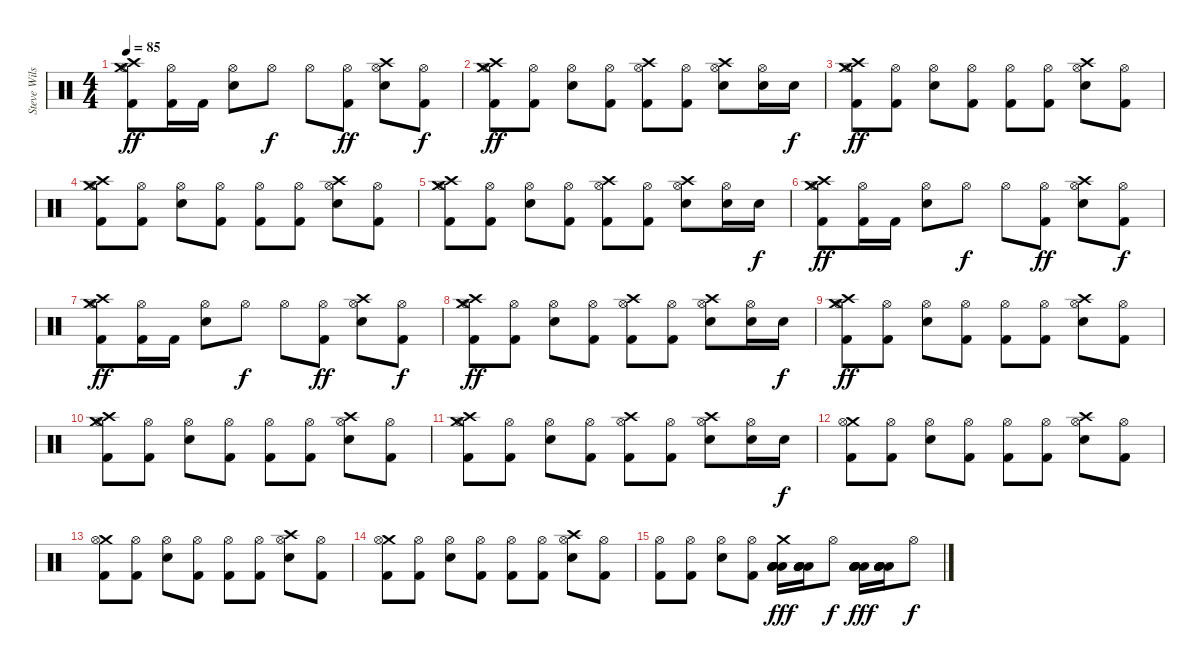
\track ("Steve Wilson" "Steve Wils") {instrument percussion}
\staff {score}
\articulation defaults
\ts (4 4)
\tempo 85
\clef neutral
\ks c
("Crash high (hit)" "Crash medium (hit)" "Hi-Hat (open)" "Kick (hit) 2").8{dy ff} ("Hi-Hat (open)" "Kick (hit) 2").16 "Kick (hit) 2".16 ("Hi-Hat (open)" "Snare (hit) 2").8 "Hi-Hat (open)".8{dy f} "Hi-Hat (open)".8 ("Hi-Hat (open)" "Kick (hit) 2").8{dy ff} ("Crash high (hit)" "Hi-Hat (open)" "Snare (hit) 2").8 ("Hi-Hat (open)" "Kick (hit) 2").8{dy f} |
("Crash high (hit)" "Crash medium (hit)" "Hi-Hat (open)" "Kick (hit) 2").8{dy ff} ("Hi-Hat (open)" "Kick (hit) 2").8 ("Hi-Hat (open)" "Snare (hit) 2").8 ("Hi-Hat (open)" "Kick (hit) 2").8 ("Crash high (hit)" "Hi-Hat (open)" "Kick (hit) 2").8 ("Hi-Hat (open)" "Kick (hit) 2").8 ("Crash high (hit)" "Hi-Hat (open)" "Snare (hit) 2").8 ("Hi-Hat (open)" "Snare (hit) 2").16 "Snare (hit) 2".16{dy f} |
("Crash high (hit)" "Crash medium (hit)" "Hi-Hat (open)" "Kick (hit) 2").8{dy ff} ("Hi-Hat (open)" "Kick (hit) 2").8 ("Hi-Hat (open)" "Snare (hit) 2").8 ("Hi-Hat (open)" "Kick (hit) 2").8 ("Hi-Hat (open)" "Kick (hit) 2").8 ("Hi-Hat (open)" "Kick (hit) 2").8 ("Crash high (hit)" "Hi-Hat (open)" "Snare (hit) 2").8 ("Hi-Hat (open)" "Kick (hit) 2").8 |
("Crash high (hit)" "Crash medium (hit)" "Hi-Hat (open)" "Kick (hit) 2").8 ("Hi-Hat (open)" "Kick (hit) 2").8 ("Hi-Hat (open)" "Snare (hit) 2").8 ("Hi-Hat (open)" "Kick (hit) 2").8 ("Hi-Hat (open)" "Kick (hit) 2").8 ("Hi-Hat (open)" "Kick (hit) 2").8 ("Crash high (hit)" "Hi-Hat (open)" "Snare (hit) 2").8 ("Hi-Hat (open)" "Kick (hit) 2").8 |
("Crash high (hit)" "Crash medium (hit)" "Hi-Hat (open)" "Kick (hit) 2").8 ("Hi-Hat (open)" "Kick (hit) 2").8 ("Hi-Hat (open)" "Snare (hit) 2").8 ("Hi-Hat (open)" "Kick (hit) 2").8 ("Crash high (hit)" "Hi-Hat (open)" "Kick (hit) 2").8 ("Hi-Hat (open)" "Kick (hit) 2").8 ("Crash high (hit)" "Hi-Hat (open)" "Snare (hit) 2").8 ("Hi-Hat (open)" "Snare (hit) 2").16 "Snare (hit) 2".16{dy f} |
("Crash high (hit)" "Crash medium (hit)" "Hi-Hat (open)" "Kick (hit) 2").8{dy ff} ("Hi-Hat (open)" "Kick (hit) 2").16 "Kick (hit) 2".16 ("Hi-Hat (open)" "Snare (hit) 2").8 "Hi-Hat (open)".8{dy f} "Hi-Hat (open)".8 ("Hi-Hat (open)" "Kick (hit) 2").8{dy ff} ("Crash high (hit)" "Hi-Hat (open)" "Snare (hit) 2").8 ("Hi-Hat (open)" "Kick (hit) 2").8{dy f} |
("Crash high (hit)" "Crash medium (hit)" "Hi-Hat (open)" "Kick (hit) 2").8{dy ff} ("Hi-Hat (open)" "Kick (hit) 2").16 "Kick (hit) 2".16 ("Hi-Hat (open)" "Snare (hit) 2").8 "Hi-Hat (open)".8{dy f} "Hi-Hat (open)".8 ("Hi-Hat (open)" "Kick (hit) 2").8{dy ff} ("Crash high (hit)" "Hi-Hat (open)" "Snare (hit) 2").8 ("Hi-Hat (open)" "Kick (hit) 2").8{dy f} |
("Crash high (hit)" "Crash medium (hit)" "Hi-Hat (open)" "Kick (hit) 2").8{dy ff} ("Hi-Hat (open)" "Kick (hit) 2").8 ("Hi-Hat (open)" "Snare (hit) 2").8 ("Hi-Hat (open)" "Kick (hit) 2").8 ("Crash high (hit)" "Hi-Hat (open)" "Kick (hit) 2").8 ("Hi-Hat (open)" "Kick (hit) 2").8 ("Crash high (hit)" "Hi-Hat (open)" "Snare (hit) 2").8 ("Hi-Hat (open)" "Snare (hit) 2").16 "Snare (hit) 2".16{dy f} |
("Crash high (hit)" "Crash medium (hit)" "Hi-Hat (open)" "Kick (hit) 2").8{dy ff} ("Hi-Hat (open)" "Kick (hit) 2").8 ("Hi-Hat (open)" "Snare (hit) 2").8 ("Hi-Hat (open)" "Kick (hit) 2").8 ("Hi-Hat (open)" "Kick (hit) 2").8 ("Hi-Hat (open)" "Kick (hit) 2").8 ("Crash high (hit)" "Hi-Hat (open)" "Snare (hit) 2").8 ("Hi-Hat (open)" "Kick (hit) 2").8 |
("Crash high (hit)" "Crash medium (hit)" "Hi-Hat (open)" "Kick (hit) 2").8 ("Hi-Hat (open)" "Kick (hit) 2").8 ("Hi-Hat (open)" "Snare (hit) 2").8 ("Hi-Hat (open)" "Kick (hit) 2").8 ("Hi-Hat (open)" "Kick (hit) 2").8 ("Hi-Hat (open)" "Kick (hit) 2").8 ("Crash high (hit)" "Hi-Hat (open)" "Snare (hit) 2").8 ("Hi-Hat (open)" "Kick (hit) 2").8 |
("Crash high (hit)" "Crash medium (hit)" "Hi-Hat (open)" "Kick (hit) 2").8 ("Hi-Hat (open)" "Kick (hit) 2").8 ("Hi-Hat (open)" "Snare (hit) 2").8 ("Hi-Hat (open)" "Kick (hit) 2").8 ("Crash high (hit)" "Hi-Hat (open)" "Kick (hit) 2").8 ("Hi-Hat (open)" "Kick (hit) 2").8 ("Crash high (hit)" "Hi-Hat (open)" "Snare (hit) 2").8 ("Hi-Hat (open)" "Snare (hit) 2").16 "Snare (hit) 2".16{dy f} |
("Crash medium (hit)" "Hi-Hat (open)" "Kick (hit) 2").8 ("Hi-Hat (open)" "Kick (hit) 2").8 ("Hi-Hat (open)" "Snare (hit) 2").8 ("Hi-Hat (open)" "Kick (hit) 2").8 ("Hi-Hat (open)" "Kick (hit) 2").8 ("Hi-Hat (open)" "Kick (hit) 2").8 ("Crash high (hit)" "Hi-Hat (open)" "Snare (hit) 2").8 ("Hi-Hat (open)" "Kick (hit) 2").8 |
("Crash medium (hit)" "Hi-Hat (open)" "Kick (hit) 2").8 ("Hi-Hat (open)" "Kick (hit) 2").8 ("Hi-Hat (open)" "Snare (hit) 2").8 ("Hi-Hat (open)" "Kick (hit) 2").8 ("Hi-Hat (open)" "Kick (hit) 2").8 ("Hi-Hat (open)" "Kick (hit) 2").8 ("Crash high (hit)" "Hi-Hat (open)" "Snare (hit) 2").8 ("Hi-Hat (open)" "Kick (hit) 2").8 |
("Crash medium (hit)" "Hi-Hat (open)" "Kick (hit) 2").8 ("Hi-Hat (open)" "Kick (hit) 2").8 ("Hi-Hat (open)" "Snare (hit) 2").8 ("Hi-Hat (open)" "Kick (hit) 2").8 ("Hi-Hat (open)" "Kick (hit) 2").8 ("Hi-Hat (open)" "Kick (hit) 2").8 ("Crash high (hit)" "Hi-Hat (open)" "Snare (hit) 2").8 ("Hi-Hat (open)" "Kick (hit) 2").8 |
("Hi-Hat (open)" "Kick (hit) 2").8 ("Hi-Hat (open)" "Kick (hit) 2").8 ("Hi-Hat (open)" "Snare (hit) 2").8 ("Hi-Hat (open)" "Kick (hit) 2").8 ("Crash medium (hit)" "Low Tom (hit)" "Low Tom (hit)" "Low Tom (hit)" "Low Tom (hit)" "Low Tom (hit)").16{dy fff} ("Low Tom (hit)" "Low Tom (hit)" "Low Tom (hit)" "Low Tom (hit)" "Low Tom (hit)").16 "Hi-Hat (open)".8{dy f} ("Low Tom (hit)" "Low Tom (hit)" "Low Tom (hit)" "Low Tom (hit)" "Low Tom (hit)").16{dy fff} ("Low Tom (hit)" "Low Tom (hit)" "Low Tom (hit)" "Low Tom (hit)" "Low Tom (hit)").16 "Hi-Hat (open)".8{dy f}
